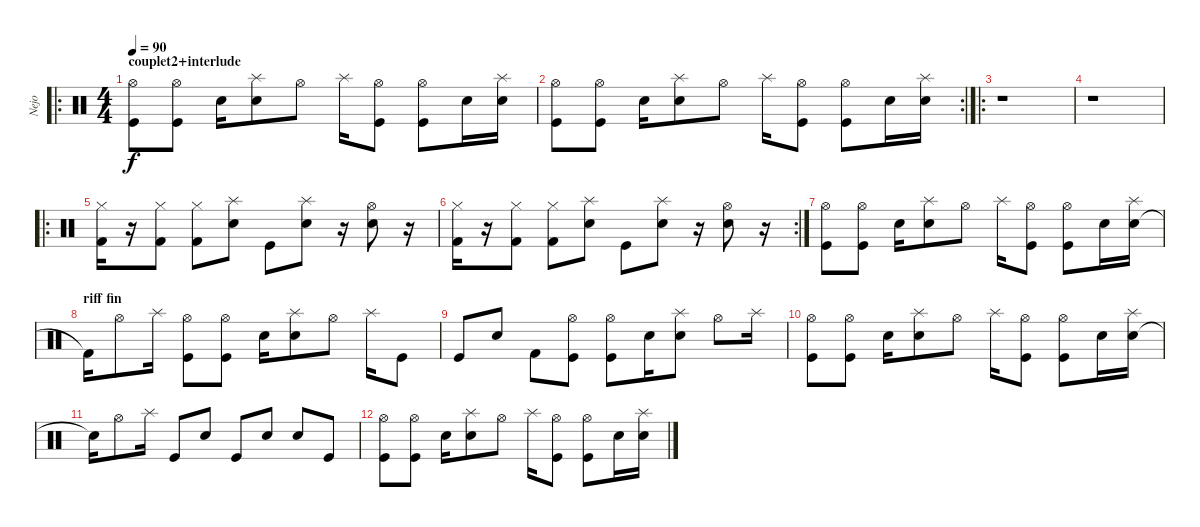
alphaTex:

\track ("Nejo" "Nejo") {instrument percussion}
\staff {score}
\articulation defaults
\ro
\ts (4 4)
\section ("" "couplet2+interlude")
\tempo 90
\clef neutral
\ks c
("Kick (hit)" "Hi-Hat (open)").8{dy f} ("Kick (hit)" "Hi-Hat (open)").8 "Electric Snare (hit)".16 ("Snare (hit) 2" "Splash (hit)").8 "Hi-Hat (open)".8 "Splash (hit)".16 ("Kick (hit)" "Hi-Hat (open)").8 ("Kick (hit)" "Hi-Hat (open)").8 "Electric Snare (hit)".16 ("Snare (hit) 2" "Splash (hit)").16 |
\rc 2
("Kick (hit)" "Hi-Hat (open)").8 ("Kick (hit)" "Hi-Hat (open)").8 "Electric Snare (hit)".16 ("Snare (hit) 2" "Splash (hit)").8 "Hi-Hat (open)".8 "Splash (hit)".16 ("Kick (hit)" "Hi-Hat (open)").8 ("Kick (hit)" "Hi-Hat (open)").8 "Electric Snare (hit)".16 ("Snare (hit) 2" "Splash (hit)").16 |
\ro
r.1 |
r.1 |
\ro
("Kick (hit) 2" "Hi-Hat (closed)").16 r.16 ("Kick (hit) 2" "Hi-Hat (closed)").8 ("Kick (hit) 2" "Hi-Hat (closed)").8 ("Electric Snare (hit)" "Splash (hit)").8 "Kick (hit)".8 ("Electric Snare (hit)" "Splash (hit)").8 r.16 ("Electric Snare (hit)" "Hi-Hat (open)").8 r.16 |
\rc 2
("Kick (hit) 2" "Hi-Hat (closed)").16 r.16 ("Kick (hit) 2" "Hi-Hat (closed)").8 ("Kick (hit) 2" "Hi-Hat (closed)").8 ("Electric Snare (hit)" "Splash (hit)").8 "Kick (hit)".8 ("Electric Snare (hit)" "Splash (hit)").8 r.16 ("Electric Snare (hit)" "Hi-Hat (open)").8 r.16 |
("Kick (hit)" "Hi-Hat (open)").8 ("Kick (hit)" "Hi-Hat (open)").8 "Electric Snare (hit)".16 ("Snare (hit) 2" "Splash (hit)").8 "Hi-Hat (open)".8 "Splash (hit)".16 ("Kick (hit)" "Hi-Hat (open)").8 ("Kick (hit)" "Hi-Hat (open)").8 "Electric Snare (hit)".16 ("Snare (hit) 2" "Splash (hit)").16 |
\section ("" "riff fin")
"Kick (hit) 2"{t}.16 "Hi-Hat (open)".8 "Splash (hit)".16 ("Kick (hit)" "Hi-Hat (open)").8 ("Kick (hit)" "Hi-Hat (open)").8 "Electric Snare (hit)".16 ("Snare (hit) 2" "Splash (hit)").8 "Hi-Hat (open)".8 "Splash (hit)".16 "Kick (hit)".8 |
"Kick (hit)".8 "Electric Snare (hit)".8 "Kick (hit) 2".8 ("Kick (hit)" "Hi-Hat (open)").8 ("Kick (hit)" "Hi-Hat (open)").8 "Electric Snare (hit)".16 ("Snare (hit) 2" "Splash (hit)").8 "Hi-Hat (open)".8 "Splash (hit)".16 |
("Kick (hit)" "Hi-Hat (open)").8 ("Kick (hit)" "Hi-Hat (open)").8 "Electric Snare (hit)".16 ("Snare (hit) 2" "Splash (hit)").8 "Hi-Hat (open)".8 "Splash (hit)".16 ("Kick (hit)" "Hi-Hat (open)").8 ("Kick (hit)" "Hi-Hat (open)").8 "Electric Snare (hit)".16 ("Snare (hit) 2" "Splash (hit)").16 |
"Snare (hit)"{t}.16 "Hi-Hat (open)".8 "Splash (hit)".16 "Kick (hit)".8 "Electric Snare (hit)".8 "Kick (hit)".8 "Electric Snare (hit)".8 "Electric Snare (hit)".8 "Kick (hit)".8 |
("Kick (hit)" "Hi-Hat (open)").8 ("Kick (hit)" "Hi-Hat (open)").8 "Electric Snare (hit)".16 ("Snare (hit) 2" "Splash (hit)").8 "Hi-Hat (open)".8 "Splash (hit)".16 ("Kick (hit)" "Hi-Hat (open)").8 ("Kick (hit)" "Hi-Hat (open)").8 "Electric Snare (hit)".16 ("Snare (hit) 2" "Splash (hit)").16
